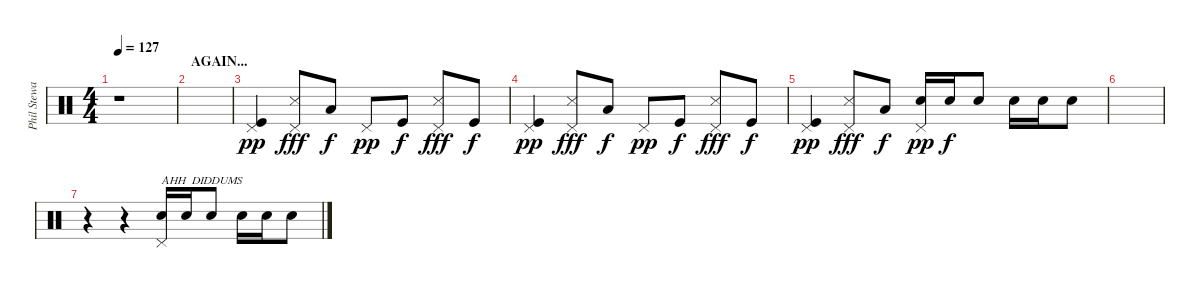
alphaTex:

\track ("Phil Steway" "Phil Stewa") {instrument percussion}
\staff {score}
\articulation defaults
\ts (4 4)
\tempo 127
\clef neutral
\ks c
r.1{dy f} |
\section ("" "AGAIN... ")
|
("Pedal Hi-Hat (hit)" "Kick (hit)").4{dy pp} ("Pedal Hi-Hat (hit)" "Snare (side stick) 3").8{dy fff} "Low Tom (hit)".8{dy f} "Pedal Hi-Hat (hit)".8{dy pp} "Kick (hit)".8{dy f} ("Pedal Hi-Hat (hit)" "Snare (side stick) 3").8{dy fff} "Kick (hit)".8{dy f} |
("Pedal Hi-Hat (hit)" "Kick (hit)").4{dy pp} ("Pedal Hi-Hat (hit)" "Snare (side stick) 3").8{dy fff} "Low Tom (hit)".8{dy f} "Pedal Hi-Hat (hit)".8{dy pp} "Kick (hit)".8{dy f} ("Pedal Hi-Hat (hit)" "Snare (side stick) 3").8{dy fff} "Kick (hit)".8{dy f} |
("Pedal Hi-Hat (hit)" "Kick (hit)").4{dy pp} ("Pedal Hi-Hat (hit)" "Snare (side stick) 3").8{dy fff} "Low Tom (hit)".8{dy f} ("Pedal Hi-Hat (hit)" "Electric Snare (hit)").16{dy pp} "Electric Snare (hit)".16{dy f} "Electric Snare (hit)".8 "Electric Snare (hit)".16 "Electric Snare (hit)".16 "Electric Snare (hit)".8 |
|
r.4 r.4 ("Pedal Hi-Hat (hit)" "Electric Snare (hit)").16{txt "AHH  DIDDUMS"} "Electric Snare (hit)".16 "Electric Snare (hit)".8 "Electric Snare (hit)".16 "Electric Snare (hit)".16 "Electric Snare (hit)".8
